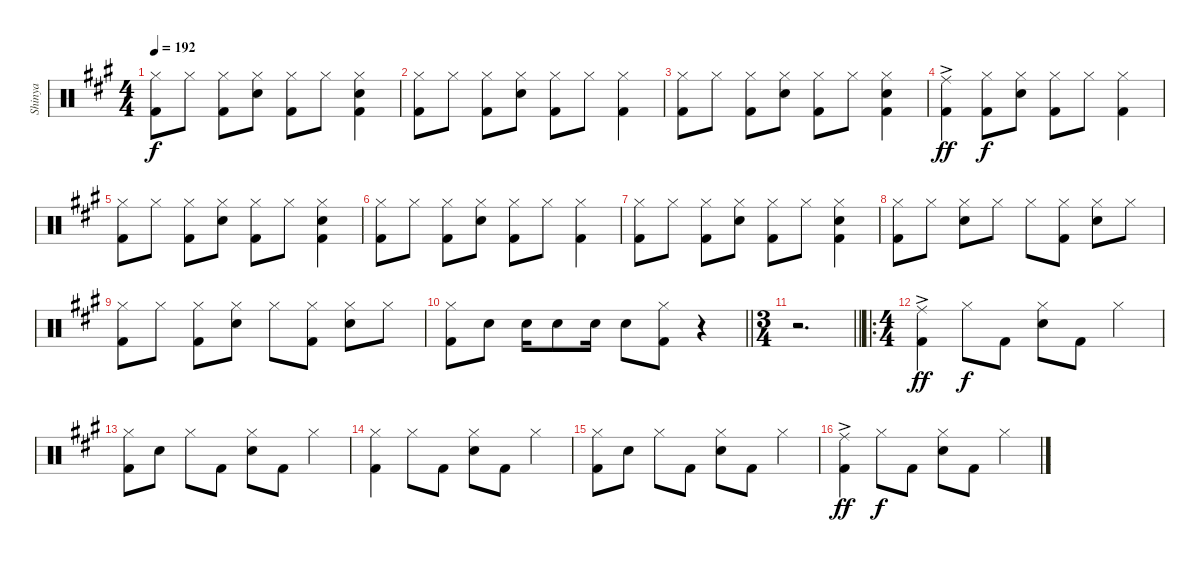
\track ("Shinya" "Shinya") {instrument percussion}
\staff {score}
\articulation defaults
\ts (4 4)
\tempo 192
\clef neutral
\ks a
("Hi-Hat (closed)" "Kick (hit) 2").8{dy f} "Hi-Hat (closed)".8 ("Hi-Hat (closed)" "Kick (hit) 2").8 ("Hi-Hat (closed)" "Snare (hit) 2").8 ("Hi-Hat (closed)" "Kick (hit) 2").8 "Hi-Hat (closed)".8 ("Hi-Hat (closed)" "Snare (hit) 2" "Kick (hit) 2").4 |
("Hi-Hat (closed)" "Kick (hit) 2").8 "Hi-Hat (closed)".8 ("Hi-Hat (closed)" "Kick (hit) 2").8 ("Hi-Hat (closed)" "Snare (hit) 2").8 ("Hi-Hat (closed)" "Kick (hit) 2").8 "Hi-Hat (closed)".8 ("Hi-Hat (closed)" "Kick (hit) 2").4 |
("Hi-Hat (closed)" "Kick (hit) 2").8 "Hi-Hat (closed)".8 ("Hi-Hat (closed)" "Kick (hit) 2").8 ("Hi-Hat (closed)" "Snare (hit) 2").8 ("Hi-Hat (closed)" "Kick (hit) 2").8 "Hi-Hat (closed)".8 ("Hi-Hat (closed)" "Snare (hit) 2" "Kick (hit) 2").4 |
("Ride (middle)"{ac} "Kick (hit) 2").4{dy ff} ("Hi-Hat (closed)" "Kick (hit) 2").8{dy f} ("Hi-Hat (closed)" "Snare (hit) 2").8 ("Hi-Hat (closed)" "Kick (hit) 2").8 "Hi-Hat (closed)".8 ("Hi-Hat (closed)" "Kick (hit) 2").4 |
("Hi-Hat (closed)" "Kick (hit) 2").8 "Hi-Hat (closed)".8 ("Hi-Hat (closed)" "Kick (hit) 2").8 ("Hi-Hat (closed)" "Snare (hit) 2").8 ("Hi-Hat (closed)" "Kick (hit) 2").8 "Hi-Hat (closed)".8 ("Hi-Hat (closed)" "Snare (hit) 2" "Kick (hit) 2").4 |
("Hi-Hat (closed)" "Kick (hit) 2").8 "Hi-Hat (closed)".8 ("Hi-Hat (closed)" "Kick (hit) 2").8 ("Hi-Hat (closed)" "Snare (hit) 2").8 ("Hi-Hat (closed)" "Kick (hit) 2").8 "Hi-Hat (closed)".8 ("Hi-Hat (closed)" "Kick (hit) 2").4 |
("Hi-Hat (closed)" "Kick (hit) 2").8 "Hi-Hat (closed)".8 ("Hi-Hat (closed)" "Kick (hit) 2").8 ("Hi-Hat (closed)" "Snare (hit) 2").8 ("Hi-Hat (closed)" "Kick (hit) 2").8 "Hi-Hat (closed)".8 ("Hi-Hat (closed)" "Snare (hit) 2" "Kick (hit) 2").4 |
("Hi-Hat (closed)" "Kick (hit) 2").8 "Hi-Hat (closed)".8 ("Hi-Hat (closed)" "Snare (hit) 2").8 "Hi-Hat (closed)".8 "Hi-Hat (closed)".8 ("Hi-Hat (closed)" "Kick (hit) 2").8 ("Hi-Hat (closed)" "Snare (hit) 2").8 "Hi-Hat (closed)".8 |
("Hi-Hat (closed)" "Kick (hit) 2").8 "Hi-Hat (closed)".8 ("Hi-Hat (closed)" "Kick (hit) 2").8 ("Hi-Hat (closed)" "Snare (hit) 2").8 "Hi-Hat (closed)".8 ("Hi-Hat (closed)" "Kick (hit) 2").8 ("Hi-Hat (closed)" "Snare (hit) 2").8 "Hi-Hat (closed)".8 |
\barLineRight lightlight
("Hi-Hat (closed)" "Kick (hit) 2").8 "Snare (hit) 2".8 "Snare (hit) 2".16 "Snare (hit) 2".8 "Snare (hit) 2".16 "Snare (hit) 2".8 ("Hi-Hat (closed)" "Kick (hit) 2").8 r.4 |
\ts (3 4)
\barLineRight lightlight
r.2{d} |
\ro
\ts (4 4)
("Ride (middle)"{ac} "Kick (hit) 2").4{dy ff} "Hi-Hat (closed)".8{dy f} "Kick (hit) 2".8 ("Hi-Hat (closed)" "Snare (hit) 2").8 "Kick (hit) 2".8 "Hi-Hat (closed)".4 |
("Hi-Hat (closed)" "Kick (hit) 2").8 "Snare (hit) 2".8 "Hi-Hat (closed)".8 "Kick (hit) 2".8 ("Hi-Hat (closed)" "Snare (hit) 2").8 "Kick (hit) 2".8 "Hi-Hat (closed)".4 |
("Hi-Hat (closed)" "Kick (hit) 2").4 "Hi-Hat (closed)".8 "Kick (hit) 2".8 ("Hi-Hat (closed)" "Snare (hit) 2").8 "Kick (hit) 2".8 "Hi-Hat (closed)".4 |
("Hi-Hat (closed)" "Kick (hit) 2").8 "Snare (hit) 2".8 "Hi-Hat (closed)".8 "Kick (hit) 2".8 ("Hi-Hat (closed)" "Snare (hit) 2").8 "Kick (hit) 2".8 "Hi-Hat (closed)".4 |
("Ride (middle)"{ac} "Kick (hit) 2").4{dy ff} "Hi-Hat (closed)".8{dy f} "Kick (hit) 2".8 ("Hi-Hat (closed)" "Snare (hit) 2").8 "Kick (hit) 2".8 "Hi-Hat (closed)".4
